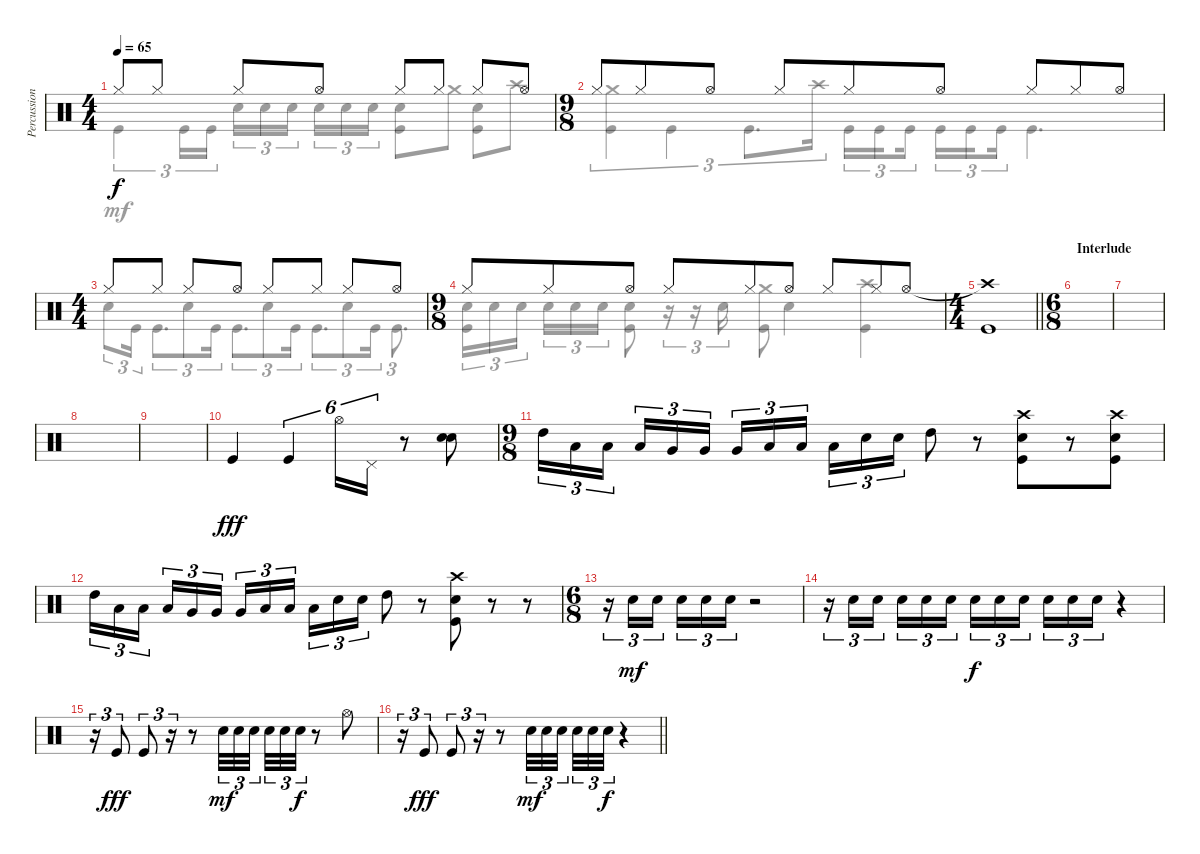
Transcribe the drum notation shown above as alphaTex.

\track ("Percussion" "Percussion") {instrument percussion}
\staff {score}
\articulation defaults
\voice
\ts (4 4)
\tempo 65
\clef neutral
\ks c "Hi-Hat (closed)".8{dy f balance 8} "Hi-Hat (closed)".8 "Hi-Hat (closed)".8 "Hi-Hat (open)".8 "Hi-Hat (closed)".8 "Hi-Hat (closed)".8 "Hi-Hat (closed)".8 "Hi-Hat (open)".8
|
\ts (9 8)
"Hi-Hat (closed)".8 "Hi-Hat (closed)".8 "Hi-Hat (open)".8 "Hi-Hat (closed)".8 "Hi-Hat (closed)".8 "Hi-Hat (open)".8 "Hi-Hat (closed)".8 "Hi-Hat (closed)".8 "Hi-Hat (open)".8 |
\ts (4 4)
"Hi-Hat (closed)".8 "Hi-Hat (closed)".8 "Hi-Hat (closed)".8 "Hi-Hat (open)".8 "Hi-Hat (closed)".8 "Hi-Hat (closed)".8 "Hi-Hat (closed)".8 "Hi-Hat (open)".8 |
\ts (9 8)
"Hi-Hat (closed)".8 "Hi-Hat (closed)".8 "Hi-Hat (open)".8 "Hi-Hat (closed)".8 "Hi-Hat (closed)".8 "Hi-Hat (open)".8 "Hi-Hat (closed)".8 "Hi-Hat (closed)".8 "Hi-Hat (open)".8 |
\ts (4 4)
\barLineRight lightlight
("Crash high (hit)"{t} "Kick (hit)").1 |
\ts (6 8)
\section ("" "Interlude")
|
|
|
|
"Kick (hit)".4{dy fff} "Kick (hit)".4{tu (6 4)} "Hi-Hat (open)".16{tu (6 4)} "Pedal Hi-Hat (hit)".16{tu (6 4)} r.8 ("Snare (hit) 2" "Snare (hit) 2").8 |
\ts (9 8)
"High Tom (hit)".16{tu (3 2)} "Low Tom (hit)".16{tu (3 2)} "Low Tom (hit)".16{tu (3 2) beam splitsecondary} "Low Tom (hit)".16{tu (3 2)} "Very Low Tom (hit)".16{tu (3 2)} "Very Low Tom (hit)".16{tu (3 2) beam splitsecondary} "Very Low Tom (hit)".16{tu (3 2)} "Low Floor Tom (hit)".16{tu (3 2)} "Low Floor Tom (hit)".16{tu (3 2)} "Low Floor Tom (hit)".16{tu (3 2)} "Snare (hit) 2".16{tu (3 2)} "Snare (hit) 2".16{tu (3 2)} "High Tom (hit)".8 r.8 ("Crash high (hit)" "Snare (hit) 2" "Kick (hit)").8 r.8 ("Crash high (hit)" "Snare (hit) 2" "Kick (hit)").8 |
"High Tom (hit)".16{tu (3 2)} "Low Tom (hit)".16{tu (3 2)} "Low Tom (hit)".16{tu (3 2) beam splitsecondary} "Low Tom (hit)".16{tu (3 2)} "Very Low Tom (hit)".16{tu (3 2)} "Very Low Tom (hit)".16{tu (3 2) beam splitsecondary} "Very Low Tom (hit)".16{tu (3 2)} "Low Floor Tom (hit)".16{tu (3 2)} "Low Floor Tom (hit)".16{tu (3 2)} "Low Floor Tom (hit)".16{tu (3 2)} "Snare (hit) 2".16{tu (3 2)} "Snare (hit) 2".16{tu (3 2)} "High Tom (hit)".8 r.8 ("Crash high (hit)" "Snare (hit) 2" "Kick (hit)").8 r.8 r.8 |
\ts (6 8)
r.16{tu (3 2)} "Snare (hit) 2".16{tu (3 2) dy mf} "Snare (hit) 2".16{tu (3 2) beam splitsecondary} "Snare (hit) 2".16{tu (3 2)} "Snare (hit) 2".16{tu (3 2)} "Snare (hit) 2".16{tu (3 2)} r.2 |
r.16{tu (3 2)} "Snare (hit) 2".16{tu (3 2)} "Snare (hit) 2".16{tu (3 2) beam splitsecondary} "Snare (hit) 2".16{tu (3 2)} "Snare (hit) 2".16{tu (3 2)} "Snare (hit) 2".16{tu (3 2) beam splitsecondary} "Snare (hit) 2".16{tu (3 2) dy f} "Snare (hit) 2".16{tu (3 2)} "Snare (hit) 2".16{tu (3 2)} "Snare (hit) 2".16{tu (3 2)} "Snare (hit) 2".16{tu (3 2)} "Snare (hit) 2".16{tu (3 2)} r.4 |
r.16{tu (3 2)} "Kick (hit)".8{tu (3 2) dy fff} "Kick (hit)".8{tu (3 2)} r.16{tu (3 2)} r.8 "Snare (hit) 2".32{tu (3 2) dy mf} "Snare (hit) 2".32{tu (3 2)} "Snare (hit) 2".32{tu (3 2) beam splitsecondary} "Snare (hit) 2".32{tu (3 2)} "Snare (hit) 2".32{tu (3 2)} "Snare (hit) 2".32{tu (3 2) dy f} r.8 "Hi-Hat (open)".8 |
\barLineRight lightlight
r.16{tu (3 2)} "Kick (hit)".8{tu (3 2) dy fff} "Kick (hit)".8{tu (3 2)} r.16{tu (3 2)} r.8 "Snare (hit) 2".32{tu (3 2) dy mf} "Snare (hit) 2".32{tu (3 2)} "Snare (hit) 2".32{tu (3 2) beam splitsecondary} "Snare (hit) 2".32{tu (3 2)} "Snare (hit) 2".32{tu (3 2)} "Snare (hit) 2".32{tu (3 2) dy f} r.4
\voice
\clef neutral
\ottava regular
\simile none
\ks c "Kick (hit)".4{tu (3 2) dy mf} "Kick (hit)".16{tu (3 2)} "Kick (hit)".16{tu (3 2)} "Snare (hit) 2".16{tu (3 2)} "Snare (hit) 2".16{tu (3 2)} "Snare (hit) 2".16{tu (3 2) beam splitsecondary} "Snare (hit) 2".16{tu (3 2)} "Snare (hit) 2".16{tu (3 2)} "Snare (hit) 2".16{tu (3 2)}
("Snare (hit) 2" "Kick (hit)").8 "Crash medium (hit)".8 ("Snare (hit) 2" "Kick (hit)").8 "Crash high (hit)".8 |
("Crash medium (hit)" "Kick (hit)").4{tu (3 2)} "Kick (hit)".4{tu (3 2)} "Kick (hit)".8{d tu (3 2)} "Crash high (hit)".16{tu (3 2)} "Kick (hit)".16{tu (3 2)} "Kick (hit)".16{tu (3 2) beam splitsecondary} "Kick (hit)".16{tu (3 2)} "Kick (hit)".16{tu (3 2)} "Kick (hit)".16{tu (3 2) beam splitsecondary} "Kick (hit)".16{tu (3 2)} "Kick (hit)".4{d} |
"Snare (hit) 2".8{tu (3 2)} "Kick (hit)".16{tu (3 2)} "Kick (hit)".8{d tu (3 2)} "Snare (hit) 2".8{tu (3 2)} "Kick (hit)".16{tu (3 2)} "Kick (hit)".8{d tu (3 2)} "Snare (hit) 2".8{tu (3 2)} "Kick (hit)".16{tu (3 2)} "Kick (hit)".8{d tu (3 2)} "Snare (hit) 2".8{tu (3 2)} "Kick (hit)".16{tu (3 2)} "Kick (hit)".8{d tu (3 2)} |
("Snare (hit) 2" "Kick (hit)").16{tu (3 2)} "Snare (hit) 2".16{tu (3 2)} "Snare (hit) 2".16{tu (3 2) beam splitsecondary} "Snare (hit) 2".16{tu (3 2)} "Snare (hit) 2".16{tu (3 2)} "Snare (hit) 2".16{tu (3 2)} ("Snare (hit) 2" "Kick (hit)").8 r.16{tu (3 2)} r.16{tu (3 2)} "Snare (hit) 2".16{tu (3 2)} ("Crash medium (hit)" "Kick (hit)").8 "Snare (hit) 2".4 ("Crash high (hit)" "Kick (hit)").4 |
\barLineRight lightlight
|
|
|
|
|
|
|
|
|
|
|
\barLineRight lightlight
